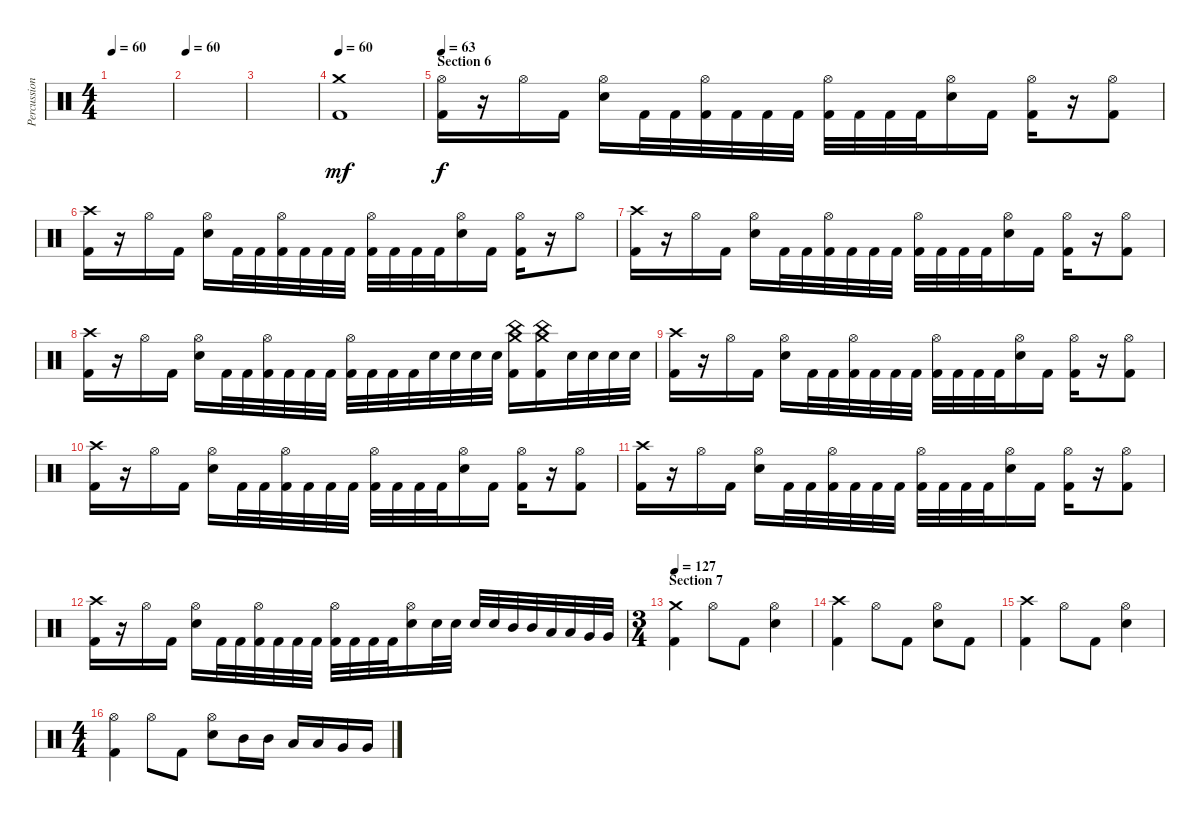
\track ("Percussion" "Percussion") {instrument percussion}
\staff {score}
\articulation defaults
\ts (4 4)
\tempo 60
\clef neutral
\ks c
|
\tempo 60
|
|
\tempo 60
("Crash medium (hit)" "Kick (hit) 2").1{dy mf} |
\section ("" "Section 6")
\tempo 63
("Hi-Hat (open)" "Kick (hit) 2").16{dy f} r.16 "Hi-Hat (open)".16 "Kick (hit) 2".16 ("Hi-Hat (open)" "Electric Snare (hit)").16 "Kick (hit) 2".32 "Kick (hit) 2".32 ("Hi-Hat (open)" "Kick (hit) 2").32 "Kick (hit) 2".32 "Kick (hit) 2".32 "Kick (hit) 2".32 ("Hi-Hat (open)" "Kick (hit) 2").32 "Kick (hit) 2".32 "Kick (hit) 2".32 "Kick (hit) 2".32 ("Hi-Hat (open)" "Electric Snare (hit)").16 "Kick (hit) 2".16 ("Hi-Hat (open)" "Kick (hit) 2").16 r.16 ("Hi-Hat (open)" "Kick (hit) 2").8 |
("Crash high (hit)" "Kick (hit) 2").16 r.16 "Hi-Hat (open)".16 "Kick (hit) 2".16 ("Hi-Hat (open)" "Electric Snare (hit)").16 "Kick (hit) 2".32 "Kick (hit) 2".32 ("Hi-Hat (open)" "Kick (hit) 2").32 "Kick (hit) 2".32 "Kick (hit) 2".32 "Kick (hit) 2".32 ("Hi-Hat (open)" "Kick (hit) 2").32 "Kick (hit) 2".32 "Kick (hit) 2".32 "Kick (hit) 2".32 ("Hi-Hat (open)" "Electric Snare (hit)").16 "Kick (hit) 2".16 ("Hi-Hat (open)" "Kick (hit) 2").16 r.16 "Hi-Hat (open)".8 |
("Crash high (hit)" "Kick (hit) 2").16 r.16 "Hi-Hat (open)".16 "Kick (hit) 2".16 ("Hi-Hat (open)" "Electric Snare (hit)").16 "Kick (hit) 2".32 "Kick (hit) 2".32 ("Hi-Hat (open)" "Kick (hit) 2").32 "Kick (hit) 2".32 "Kick (hit) 2".32 "Kick (hit) 2".32 ("Hi-Hat (open)" "Kick (hit) 2").32 "Kick (hit) 2".32 "Kick (hit) 2".32 "Kick (hit) 2".32 ("Hi-Hat (open)" "Electric Snare (hit)").16 "Kick (hit) 2".16 ("Hi-Hat (open)" "Kick (hit) 2").16 r.16 ("Hi-Hat (open)" "Kick (hit) 2").8 |
("Crash high (hit)" "Kick (hit) 2").16 r.16 "Hi-Hat (open)".16 "Kick (hit) 2".16 ("Hi-Hat (open)" "Electric Snare (hit)").16 "Kick (hit) 2".32 "Kick (hit) 2".32 ("Hi-Hat (open)" "Kick (hit) 2").32 "Kick (hit) 2".32 "Kick (hit) 2".32 "Kick (hit) 2".32 ("Hi-Hat (open)" "Kick (hit) 2").32 "Kick (hit) 2".32 "Kick (hit) 2".32 "Kick (hit) 2".32 "Electric Snare (hit)".32 "Electric Snare (hit)".32 "Electric Snare (hit)".32 "Electric Snare (hit)".32 ("Crash medium (hit)" "China (hit)" "Kick (hit) 2").16 ("Crash medium (hit)" "China (hit)" "Kick (hit) 2").16 "Electric Snare (hit)".32 "Electric Snare (hit)".32 "Electric Snare (hit)".32 "Electric Snare (hit)".32 |
("Crash high (hit)" "Kick (hit) 2").16 r.16 "Hi-Hat (open)".16 "Kick (hit) 2".16 ("Hi-Hat (open)" "Electric Snare (hit)").16 "Kick (hit) 2".32 "Kick (hit) 2".32 ("Hi-Hat (open)" "Kick (hit) 2").32 "Kick (hit) 2".32 "Kick (hit) 2".32 "Kick (hit) 2".32 ("Hi-Hat (open)" "Kick (hit) 2").32 "Kick (hit) 2".32 "Kick (hit) 2".32 "Kick (hit) 2".32 ("Hi-Hat (open)" "Electric Snare (hit)").16 "Kick (hit) 2".16 ("Hi-Hat (open)" "Kick (hit) 2").16 r.16 ("Hi-Hat (open)" "Kick (hit) 2").8 |
("Crash high (hit)" "Kick (hit) 2").16 r.16 "Hi-Hat (open)".16 "Kick (hit) 2".16 ("Hi-Hat (open)" "Electric Snare (hit)").16 "Kick (hit) 2".32 "Kick (hit) 2".32 ("Hi-Hat (open)" "Kick (hit) 2").32 "Kick (hit) 2".32 "Kick (hit) 2".32 "Kick (hit) 2".32 ("Hi-Hat (open)" "Kick (hit) 2").32 "Kick (hit) 2".32 "Kick (hit) 2".32 "Kick (hit) 2".32 ("Hi-Hat (open)" "Electric Snare (hit)").16 "Kick (hit) 2".16 ("Hi-Hat (open)" "Kick (hit) 2").16 r.16 ("Hi-Hat (open)" "Kick (hit) 2").8 |
("Crash high (hit)" "Kick (hit) 2").16 r.16 "Hi-Hat (open)".16 "Kick (hit) 2".16 ("Hi-Hat (open)" "Electric Snare (hit)").16 "Kick (hit) 2".32 "Kick (hit) 2".32 ("Hi-Hat (open)" "Kick (hit) 2").32 "Kick (hit) 2".32 "Kick (hit) 2".32 "Kick (hit) 2".32 ("Hi-Hat (open)" "Kick (hit) 2").32 "Kick (hit) 2".32 "Kick (hit) 2".32 "Kick (hit) 2".32 ("Hi-Hat (open)" "Electric Snare (hit)").16 "Kick (hit) 2".16 ("Hi-Hat (open)" "Kick (hit) 2").16 r.16 ("Hi-Hat (open)" "Kick (hit) 2").8 |
("Crash high (hit)" "Kick (hit) 2").16 r.16 "Hi-Hat (open)".16 "Kick (hit) 2".16 ("Hi-Hat (open)" "Electric Snare (hit)").16 "Kick (hit) 2".32 "Kick (hit) 2".32 ("Hi-Hat (open)" "Kick (hit) 2").32 "Kick (hit) 2".32 "Kick (hit) 2".32 "Kick (hit) 2".32 ("Hi-Hat (open)" "Kick (hit) 2").32 "Kick (hit) 2".32 "Kick (hit) 2".32 "Kick (hit) 2".32 ("Hi-Hat (open)" "Electric Snare (hit)").16 "Electric Snare (hit)".32 "Electric Snare (hit)".32 "Electric Snare (hit)".32 "Electric Snare (hit)".32 "Mid Tom (hit)".32 "Mid Tom (hit)".32 "Low Tom (hit)".32 "Low Tom (hit)".32 "Very Low Tom (hit)".32 "Very Low Tom (hit)".32 |
\ts (3 4)
\section ("" "Section 7")
\tempo 127
("Crash medium (hit)" "Kick (hit) 2").4 "Hi-Hat (open)".8 "Kick (hit) 2".8 ("Hi-Hat (open)" "Electric Snare (hit)").4 |
("Crash high (hit)" "Kick (hit) 2").4 "Hi-Hat (open)".8 "Kick (hit) 2".8 ("Hi-Hat (open)" "Electric Snare (hit)").8 "Kick (hit) 2".8 |
("Crash high (hit)" "Kick (hit) 2").4 "Hi-Hat (open)".8 "Kick (hit) 2".8 ("Hi-Hat (open)" "Electric Snare (hit)").4 |
\ts (4 4)
("Hi-Hat (open)" "Kick (hit) 2").4 "Hi-Hat (open)".8 "Kick (hit) 2".8 ("Hi-Hat (open)" "Electric Snare (hit)").8 "Mid Tom (hit)".16 "Mid Tom (hit)".16 "Low Tom (hit)".16 "Low Tom (hit)".16 "Very Low Tom (hit)".16 "Very Low Tom (hit)".16
